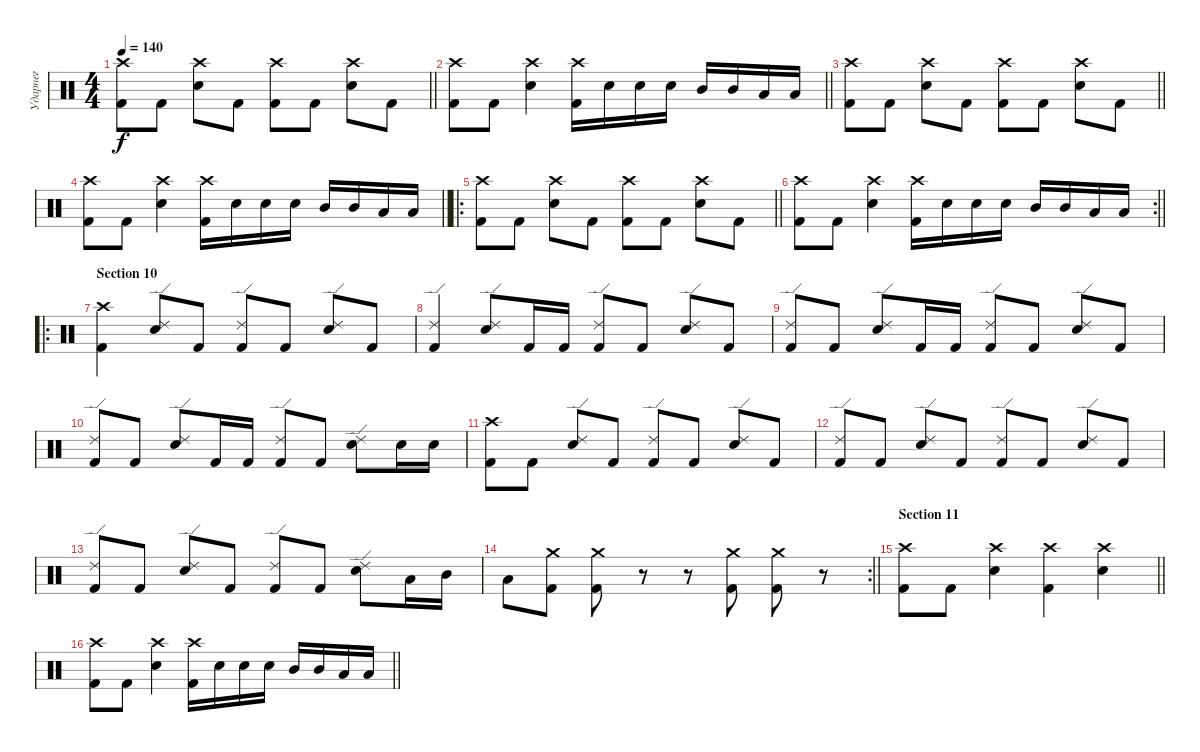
\track ("Ударнег" "Ударнег") {instrument percussion}
\staff {score}
\articulation defaults
\ts (4 4)
\tempo 140
\clef neutral
\barLineRight lightlight
\ks c
("Crash high (hit)" "Kick (hit) 2").8{dy f} "Kick (hit) 2".8 ("Crash high (hit)" "Snare (hit) 2").8 "Kick (hit) 2".8 ("Crash high (hit)" "Kick (hit) 2").8 "Kick (hit) 2".8 ("Crash high (hit)" "Snare (hit) 2").8 "Kick (hit) 2".8 |
\barLineRight lightlight
("Crash high (hit)" "Kick (hit) 2").8 "Kick (hit) 2".8 ("Crash high (hit)" "Snare (hit) 2").4 ("Crash high (hit)" "Kick (hit) 2").16 "Snare (hit) 2".16 "Snare (hit) 2".16 "Snare (hit) 2".16 "Mid Tom (hit)".16 "Mid Tom (hit)".16 "Low Tom (hit)".16 "Low Tom (hit)".16 |
\barLineRight lightlight
("Crash high (hit)" "Kick (hit) 2").8 "Kick (hit) 2".8 ("Crash high (hit)" "Snare (hit) 2").8 "Kick (hit) 2".8 ("Crash high (hit)" "Kick (hit) 2").8 "Kick (hit) 2".8 ("Crash high (hit)" "Snare (hit) 2").8 "Kick (hit) 2".8 |
\barLineRight lightlight
("Crash high (hit)" "Kick (hit) 2").8 "Kick (hit) 2".8 ("Crash high (hit)" "Snare (hit) 2").4 ("Crash high (hit)" "Kick (hit) 2").16 "Snare (hit) 2".16 "Snare (hit) 2".16 "Snare (hit) 2".16 "Mid Tom (hit)".16 "Mid Tom (hit)".16 "Low Tom (hit)".16 "Low Tom (hit)".16 |
\ro
\barLineRight lightlight
("Crash high (hit)" "Kick (hit) 2").8 "Kick (hit) 2".8 ("Crash high (hit)" "Snare (hit) 2").8 "Kick (hit) 2".8 ("Crash high (hit)" "Kick (hit) 2").8 "Kick (hit) 2".8 ("Crash high (hit)" "Snare (hit) 2").8 "Kick (hit) 2".8 |
\rc 2
\barLineRight lightlight
("Crash high (hit)" "Kick (hit) 2").8 "Kick (hit) 2".8 ("Crash high (hit)" "Snare (hit) 2").4 ("Crash high (hit)" "Kick (hit) 2").16 "Snare (hit) 2".16 "Snare (hit) 2".16 "Snare (hit) 2".16 "Mid Tom (hit)".16 "Mid Tom (hit)".16 "Low Tom (hit)".16 "Low Tom (hit)".16 |
\ro
\section ("" "Section 10")
("Crash high (hit)" "Kick (hit) 2").4 ("Ride (edge) 2" "Snare (hit) 2").8 "Kick (hit) 2".8 ("Ride (edge) 2" "Kick (hit) 2").8 "Kick (hit) 2".8 ("Ride (edge) 2" "Snare (hit) 2").8 "Kick (hit) 2".8 |
("Ride (edge) 2" "Kick (hit) 2").4 ("Ride (edge) 2" "Snare (hit) 2").8 "Kick (hit) 2".16 "Kick (hit) 2".16 ("Ride (edge) 2" "Kick (hit) 2").8 "Kick (hit) 2".8 ("Ride (edge) 2" "Snare (hit) 2").8 "Kick (hit) 2".8 |
("Ride (edge) 2" "Kick (hit) 2").8 "Kick (hit) 2".8 ("Ride (edge) 2" "Snare (hit) 2").8 "Kick (hit) 2".16 "Kick (hit) 2".16 ("Ride (edge) 2" "Kick (hit) 2").8 "Kick (hit) 2".8 ("Ride (edge) 2" "Snare (hit) 2").8 "Kick (hit) 2".8 |
("Ride (edge) 2" "Kick (hit) 2").8 "Kick (hit) 2".8 ("Ride (edge) 2" "Snare (hit) 2").8 "Kick (hit) 2".16 "Kick (hit) 2".16 ("Ride (edge) 2" "Kick (hit) 2").8 "Kick (hit) 2".8 ("Ride (edge) 2" "Snare (hit) 2").8 "Snare (hit) 2".16 "Snare (hit) 2".16 |
("Crash high (hit)" "Kick (hit) 2").8 "Kick (hit) 2".8 ("Ride (edge) 2" "Snare (hit) 2").8 "Kick (hit) 2".8 ("Ride (edge) 2" "Kick (hit) 2").8 "Kick (hit) 2".8 ("Ride (edge) 2" "Snare (hit) 2").8 "Kick (hit) 2".8 |
("Ride (edge) 2" "Kick (hit) 2").8 "Kick (hit) 2".8 ("Ride (edge) 2" "Snare (hit) 2").8 "Kick (hit) 2".8 ("Ride (edge) 2" "Kick (hit) 2").8 "Kick (hit) 2".8 ("Ride (edge) 2" "Snare (hit) 2").8 "Kick (hit) 2".8 |
("Ride (edge) 2" "Kick (hit) 2").8 "Kick (hit) 2".8 ("Ride (edge) 2" "Snare (hit) 2").8 "Kick (hit) 2".8 ("Ride (edge) 2" "Kick (hit) 2").8 "Kick (hit) 2".8 ("Ride (edge) 2" "Snare (hit) 2").8 "Low Tom (hit)".16 "Mid Tom (hit)".16 |
\rc 2
\barLineRight lightlight "Low Tom (hit)".8
("Crash medium (hit)" "Kick (hit) 2").8 ("Crash medium (hit)" "Kick (hit) 2").8 r.8 r.8 ("Crash medium (hit)" "Kick (hit) 2").8 ("Crash medium (hit)" "Kick (hit) 2").8 r.8 |
\section ("" "Section 11")
\barLineRight lightlight
("Crash high (hit)" "Kick (hit) 2").8 "Kick (hit) 2".8 ("Crash high (hit)" "Snare (hit) 2").4 ("Crash high (hit)" "Kick (hit) 2").4 ("Crash high (hit)" "Snare (hit) 2").4 |
\barLineRight lightlight
("Crash high (hit)" "Kick (hit) 2").8 "Kick (hit) 2".8 ("Crash high (hit)" "Snare (hit) 2").4 ("Crash high (hit)" "Kick (hit) 2").16 "Snare (hit) 2".16 "Snare (hit) 2".16 "Snare (hit) 2".16 "Mid Tom (hit)".16 "Mid Tom (hit)".16 "Low Tom (hit)".16 "Low Tom (hit)".16
